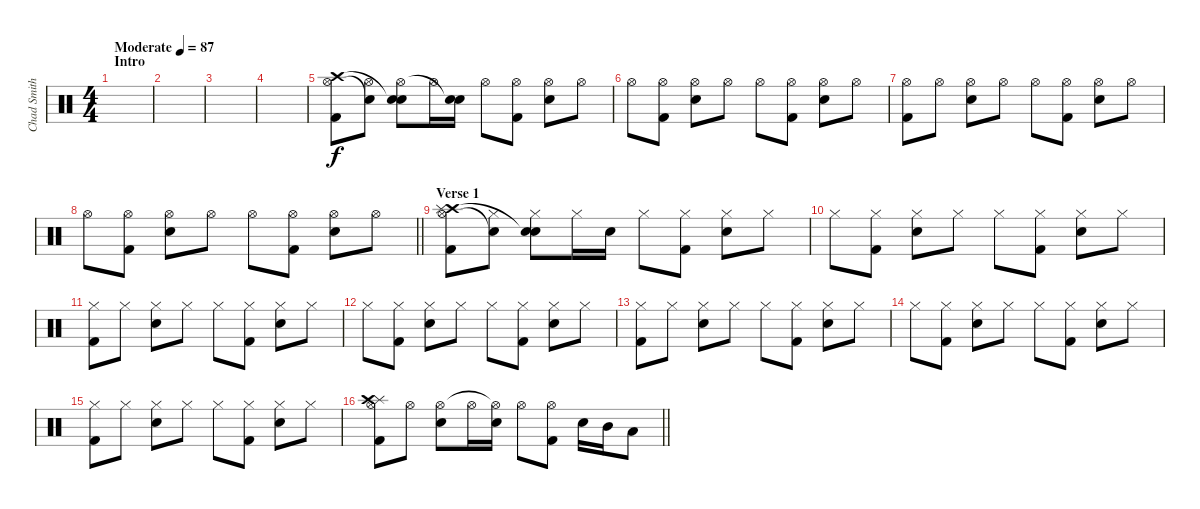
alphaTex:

\track ("Chad Smith" "Chad Smith") {instrument percussion}
\staff {score}
\articulation defaults
\ts (4 4)
\section ("" "Intro")
\tempo (87 "Moderate")
\clef neutral
\ks c
|
|
|
|
("Kick (hit) 2" "Hi-Hat (open)" "Crash high (hit)").8 ("Hi-Hat (open)" "Snare (hit)"{t}).8 ("Electric Snare (hit)" "Hi-Hat (open)" "Snare (hit)"{t}).8 "Hi-Hat (open)".16 ("Electric Snare (hit)" "Snare (hit)"{t}).16 "Hi-Hat (open)".8 ("Kick (hit) 2" "Hi-Hat (open)").8 ("Electric Snare (hit)" "Hi-Hat (open)").8 "Hi-Hat (open)".8 |
"Hi-Hat (open)".8 ("Kick (hit) 2" "Hi-Hat (open)").8 ("Electric Snare (hit)" "Hi-Hat (open)").8 "Hi-Hat (open)".8 "Hi-Hat (open)".8 ("Kick (hit) 2" "Hi-Hat (open)").8 ("Electric Snare (hit)" "Hi-Hat (open)").8 "Hi-Hat (open)".8 |
("Kick (hit) 2" "Hi-Hat (open)").8 "Hi-Hat (open)".8 ("Electric Snare (hit)" "Hi-Hat (open)").8 "Hi-Hat (open)".8 "Hi-Hat (open)".8 ("Kick (hit) 2" "Hi-Hat (open)").8 ("Electric Snare (hit)" "Hi-Hat (open)").8 "Hi-Hat (open)".8 |
\barLineRight lightlight "Hi-Hat (open)".8
("Kick (hit) 2" "Hi-Hat (open)").8 ("Electric Snare (hit)" "Hi-Hat (open)").8 "Hi-Hat (open)".8 "Hi-Hat (open)".8 ("Kick (hit) 2" "Hi-Hat (open)").8 ("Electric Snare (hit)" "Hi-Hat (open)").8 "Hi-Hat (open)".8 |
\section ("" "Verse 1")
("Kick (hit) 2" "Hi-Hat (open)" "Crash high (hit)" "Splash (hit)").8 ("Hi-Hat (closed)" "Snare (hit)"{t}).8 ("Electric Snare (hit)" "Hi-Hat (closed)" "Snare (hit)"{t}).8 "Hi-Hat (closed)".16 "Electric Snare (hit)".16 "Hi-Hat (closed)".8 ("Kick (hit) 2" "Hi-Hat (closed)").8 ("Electric Snare (hit)" "Hi-Hat (closed)").8 "Hi-Hat (closed)".8 |
"Hi-Hat (closed)".8 ("Kick (hit) 2" "Hi-Hat (closed)").8 ("Electric Snare (hit)" "Hi-Hat (closed)").8 "Hi-Hat (closed)".8 "Hi-Hat (closed)".8 ("Kick (hit) 2" "Hi-Hat (closed)").8 ("Electric Snare (hit)" "Hi-Hat (closed)").8 "Hi-Hat (closed)".8 |
("Kick (hit) 2" "Hi-Hat (closed)").8 "Hi-Hat (closed)".8 ("Electric Snare (hit)" "Hi-Hat (closed)").8 "Hi-Hat (closed)".8 "Hi-Hat (closed)".8 ("Kick (hit) 2" "Hi-Hat (closed)").8 ("Electric Snare (hit)" "Hi-Hat (closed)").8 "Hi-Hat (closed)".8 |
"Hi-Hat (closed)".8 ("Kick (hit) 2" "Hi-Hat (closed)").8 ("Electric Snare (hit)" "Hi-Hat (closed)").8 "Hi-Hat (closed)".8 "Hi-Hat (closed)".8 ("Kick (hit) 2" "Hi-Hat (closed)").8 ("Electric Snare (hit)" "Hi-Hat (closed)").8 "Hi-Hat (closed)".8 |
("Kick (hit) 2" "Hi-Hat (closed)").8 "Hi-Hat (closed)".8 ("Electric Snare (hit)" "Hi-Hat (closed)").8 "Hi-Hat (closed)".8 "Hi-Hat (closed)".8 ("Kick (hit) 2" "Hi-Hat (closed)").8 ("Electric Snare (hit)" "Hi-Hat (closed)").8 "Hi-Hat (closed)".8 |
"Hi-Hat (closed)".8 ("Kick (hit) 2" "Hi-Hat (closed)").8 ("Electric Snare (hit)" "Hi-Hat (closed)").8 "Hi-Hat (closed)".8 "Hi-Hat (closed)".8 ("Kick (hit) 2" "Hi-Hat (closed)").8 ("Electric Snare (hit)" "Hi-Hat (closed)").8 "Hi-Hat (closed)".8 |
("Kick (hit) 2" "Hi-Hat (closed)").8 "Hi-Hat (closed)".8 ("Electric Snare (hit)" "Hi-Hat (closed)").8 "Hi-Hat (closed)".8 "Hi-Hat (closed)".8 ("Kick (hit) 2" "Hi-Hat (closed)").8 ("Electric Snare (hit)" "Hi-Hat (closed)").8 "Hi-Hat (closed)".8 |
\barLineRight lightlight
("Splash (hit)" "Kick (hit) 2" "Hi-Hat (open)" "Crash high (hit)").8 "Hi-Hat (open)".8 ("Electric Snare (hit)" "Hi-Hat (open)").8 "Hi-Hat (open)".16 ("Electric Snare (hit)" "Hi-Hat (open)"{t}).16 "Hi-Hat (open)".8 ("Kick (hit) 2" "Hi-Hat (open)").8 "Electric Snare (hit)".16 "Mid Tom (hit)".16 "Low Tom (hit)".8
